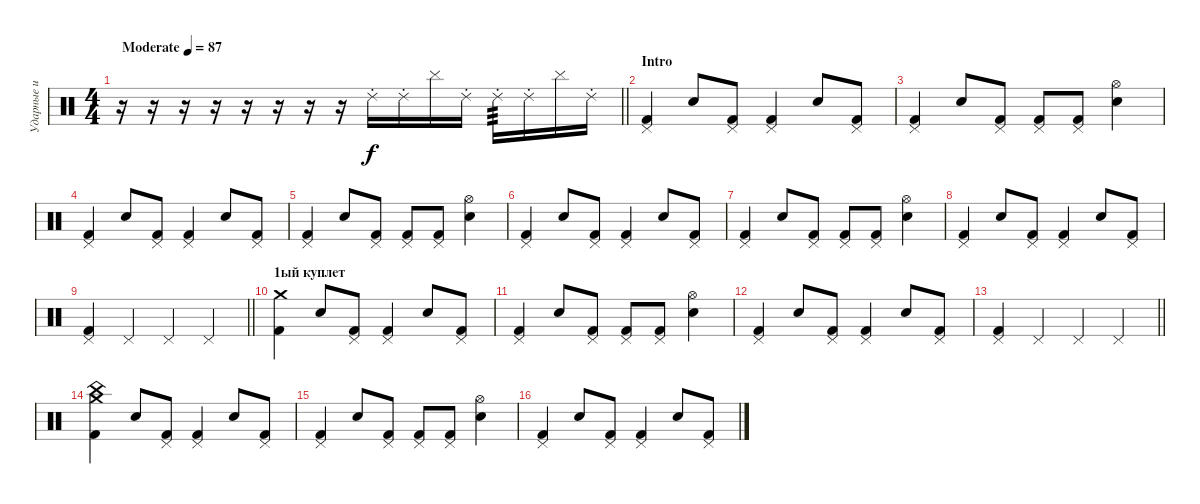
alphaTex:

\track ("Ударные и Скрэтч" "Ударные и ") {instrument percussion}
\staff {score}
\articulation defaults
\ts (4 4)
\tempo (87 "Moderate")
\clef neutral
\barLineRight lightlight
\ks c
r.16{dy f} r.16 r.16 r.16 r.16 r.16 r.16 r.16 "Ride (choke) 2".16 "Ride (choke) 2".16 "Cymbal (hit)".16 "Ride (choke) 2".16 "Ride (choke) 2".16{tp 3} "Ride (choke) 2".16 "Cymbal (hit)".16 "Ride (choke) 2".16 |
\section ("" "Intro")
("Kick (hit) 2" "Pedal Hi-Hat (hit)").4 "Electric Snare (hit)".8 ("Kick (hit) 2" "Pedal Hi-Hat (hit)").8 ("Kick (hit) 2" "Pedal Hi-Hat (hit)").4 "Electric Snare (hit)".8 ("Kick (hit) 2" "Pedal Hi-Hat (hit)").8 |
("Kick (hit) 2" "Pedal Hi-Hat (hit)").4 "Electric Snare (hit)".8 ("Kick (hit) 2" "Pedal Hi-Hat (hit)").8 ("Kick (hit) 2" "Pedal Hi-Hat (hit)").8 ("Kick (hit) 2" "Pedal Hi-Hat (hit)").8 ("Electric Snare (hit)" "Hi-Hat (open)").4 |
("Kick (hit) 2" "Pedal Hi-Hat (hit)").4 "Electric Snare (hit)".8 ("Kick (hit) 2" "Pedal Hi-Hat (hit)").8 ("Kick (hit) 2" "Pedal Hi-Hat (hit)").4 "Electric Snare (hit)".8 ("Kick (hit) 2" "Pedal Hi-Hat (hit)").8 |
("Kick (hit) 2" "Pedal Hi-Hat (hit)").4 "Electric Snare (hit)".8 ("Kick (hit) 2" "Pedal Hi-Hat (hit)").8 ("Kick (hit) 2" "Pedal Hi-Hat (hit)").8 ("Kick (hit) 2" "Pedal Hi-Hat (hit)").8 ("Electric Snare (hit)" "Hi-Hat (open)").4 |
("Kick (hit) 2" "Pedal Hi-Hat (hit)").4 "Electric Snare (hit)".8 ("Kick (hit) 2" "Pedal Hi-Hat (hit)").8 ("Kick (hit) 2" "Pedal Hi-Hat (hit)").4 "Electric Snare (hit)".8 ("Kick (hit) 2" "Pedal Hi-Hat (hit)").8 |
("Kick (hit) 2" "Pedal Hi-Hat (hit)").4 "Electric Snare (hit)".8 ("Kick (hit) 2" "Pedal Hi-Hat (hit)").8 ("Kick (hit) 2" "Pedal Hi-Hat (hit)").8 ("Kick (hit) 2" "Pedal Hi-Hat (hit)").8 ("Electric Snare (hit)" "Hi-Hat (open)").4 |
("Kick (hit) 2" "Pedal Hi-Hat (hit)").4 "Electric Snare (hit)".8 ("Kick (hit) 2" "Pedal Hi-Hat (hit)").8 ("Kick (hit) 2" "Pedal Hi-Hat (hit)").4 "Electric Snare (hit)".8 ("Kick (hit) 2" "Pedal Hi-Hat (hit)").8 |
\barLineRight lightlight
("Kick (hit) 2" "Pedal Hi-Hat (hit)").4 "Pedal Hi-Hat (hit)".4 "Pedal Hi-Hat (hit)".4 "Pedal Hi-Hat (hit)".4 |
\section ("" "1ый куплет")
("Kick (hit) 2" "Crash medium (hit)").4 "Electric Snare (hit)".8 ("Kick (hit) 2" "Pedal Hi-Hat (hit)").8 ("Kick (hit) 2" "Pedal Hi-Hat (hit)").4 "Electric Snare (hit)".8 ("Kick (hit) 2" "Pedal Hi-Hat (hit)").8 |
("Kick (hit) 2" "Pedal Hi-Hat (hit)").4 "Electric Snare (hit)".8 ("Kick (hit) 2" "Pedal Hi-Hat (hit)").8 ("Kick (hit) 2" "Pedal Hi-Hat (hit)").8 ("Kick (hit) 2" "Pedal Hi-Hat (hit)").8 ("Electric Snare (hit)" "Hi-Hat (open)").4 |
("Kick (hit) 2" "Pedal Hi-Hat (hit)").4 "Electric Snare (hit)".8 ("Kick (hit) 2" "Pedal Hi-Hat (hit)").8 ("Kick (hit) 2" "Pedal Hi-Hat (hit)").4 "Electric Snare (hit)".8 ("Kick (hit) 2" "Pedal Hi-Hat (hit)").8 |
\barLineRight lightlight
("Kick (hit) 2" "Pedal Hi-Hat (hit)").4 "Pedal Hi-Hat (hit)".4 "Pedal Hi-Hat (hit)".4 "Pedal Hi-Hat (hit)".4 |
("Kick (hit) 2" "Crash medium (hit)" "China (hit)").4 "Electric Snare (hit)".8 ("Kick (hit) 2" "Pedal Hi-Hat (hit)").8 ("Kick (hit) 2" "Pedal Hi-Hat (hit)").4 "Electric Snare (hit)".8 ("Kick (hit) 2" "Pedal Hi-Hat (hit)").8 |
("Kick (hit) 2" "Pedal Hi-Hat (hit)").4 "Electric Snare (hit)".8 ("Kick (hit) 2" "Pedal Hi-Hat (hit)").8 ("Kick (hit) 2" "Pedal Hi-Hat (hit)").8 ("Kick (hit) 2" "Pedal Hi-Hat (hit)").8 ("Electric Snare (hit)" "Hi-Hat (open)").4 |
("Kick (hit) 2" "Pedal Hi-Hat (hit)").4 "Electric Snare (hit)".8 ("Kick (hit) 2" "Pedal Hi-Hat (hit)").8 ("Kick (hit) 2" "Pedal Hi-Hat (hit)").4 "Electric Snare (hit)".8 ("Kick (hit) 2" "Pedal Hi-Hat (hit)").8
